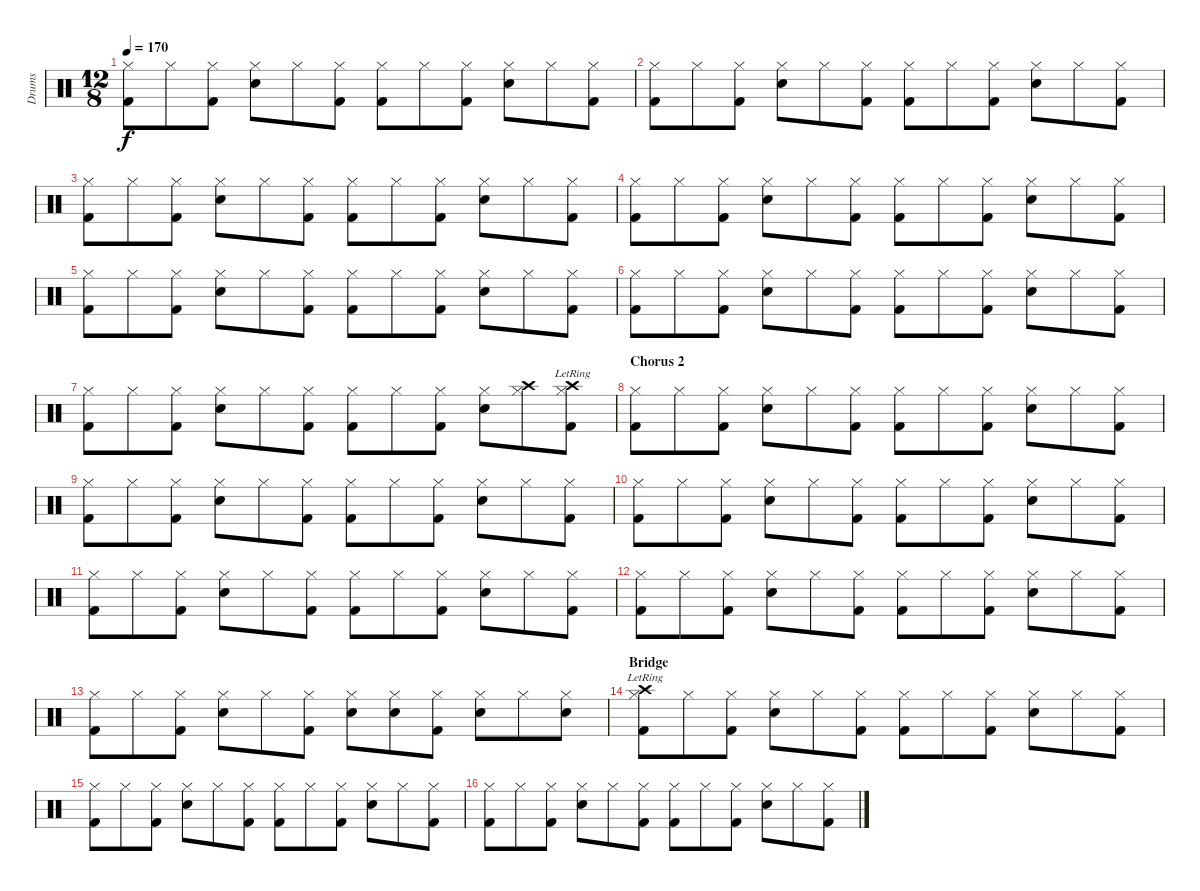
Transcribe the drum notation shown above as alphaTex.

\track ("Drums" "Drums") {instrument percussion}
\staff {score}
\articulation defaults
\ts (12 8)
\tempo 170
\clef neutral
\ks c
("Kick (hit) 2" "Hi-Hat (closed)").8{dy f} "Hi-Hat (closed)".8 ("Kick (hit) 2" "Hi-Hat (closed)").8 ("Snare (hit) 2" "Hi-Hat (closed)").8 "Hi-Hat (closed)".8 ("Kick (hit) 2" "Hi-Hat (closed)").8 ("Kick (hit) 2" "Hi-Hat (closed)").8 "Hi-Hat (closed)".8 ("Kick (hit) 2" "Hi-Hat (closed)").8 ("Snare (hit) 2" "Hi-Hat (closed)").8 "Hi-Hat (closed)".8 ("Kick (hit) 2" "Hi-Hat (closed)").8 |
("Kick (hit) 2" "Hi-Hat (closed)").8 "Hi-Hat (closed)".8 ("Kick (hit) 2" "Hi-Hat (closed)").8 ("Snare (hit) 2" "Hi-Hat (closed)").8 "Hi-Hat (closed)".8 ("Kick (hit) 2" "Hi-Hat (closed)").8 ("Kick (hit) 2" "Hi-Hat (closed)").8 "Hi-Hat (closed)".8 ("Kick (hit) 2" "Hi-Hat (closed)").8 ("Snare (hit) 2" "Hi-Hat (closed)").8 "Hi-Hat (closed)".8 ("Kick (hit) 2" "Hi-Hat (closed)").8 |
("Kick (hit) 2" "Hi-Hat (closed)").8 "Hi-Hat (closed)".8 ("Kick (hit) 2" "Hi-Hat (closed)").8 ("Snare (hit) 2" "Hi-Hat (closed)").8 "Hi-Hat (closed)".8 ("Kick (hit) 2" "Hi-Hat (closed)").8 ("Kick (hit) 2" "Hi-Hat (closed)").8 "Hi-Hat (closed)".8 ("Kick (hit) 2" "Hi-Hat (closed)").8 ("Snare (hit) 2" "Hi-Hat (closed)").8 "Hi-Hat (closed)".8 ("Kick (hit) 2" "Hi-Hat (closed)").8 |
("Kick (hit) 2" "Hi-Hat (closed)").8 "Hi-Hat (closed)".8 ("Kick (hit) 2" "Hi-Hat (closed)").8 ("Snare (hit) 2" "Hi-Hat (closed)").8 "Hi-Hat (closed)".8 ("Kick (hit) 2" "Hi-Hat (closed)").8 ("Kick (hit) 2" "Hi-Hat (closed)").8 "Hi-Hat (closed)".8 ("Kick (hit) 2" "Hi-Hat (closed)").8 ("Snare (hit) 2" "Hi-Hat (closed)").8 "Hi-Hat (closed)".8 ("Kick (hit) 2" "Hi-Hat (closed)").8 |
("Kick (hit) 2" "Hi-Hat (closed)").8 "Hi-Hat (closed)".8 ("Kick (hit) 2" "Hi-Hat (closed)").8 ("Snare (hit) 2" "Hi-Hat (closed)").8 "Hi-Hat (closed)".8 ("Kick (hit) 2" "Hi-Hat (closed)").8 ("Kick (hit) 2" "Hi-Hat (closed)").8 "Hi-Hat (closed)".8 ("Kick (hit) 2" "Hi-Hat (closed)").8 ("Snare (hit) 2" "Hi-Hat (closed)").8 "Hi-Hat (closed)".8 ("Kick (hit) 2" "Hi-Hat (closed)").8 |
("Kick (hit) 2" "Hi-Hat (closed)").8 "Hi-Hat (closed)".8 ("Kick (hit) 2" "Hi-Hat (closed)").8 ("Snare (hit) 2" "Hi-Hat (closed)").8 "Hi-Hat (closed)".8 ("Kick (hit) 2" "Hi-Hat (closed)").8 ("Kick (hit) 2" "Hi-Hat (closed)").8 "Hi-Hat (closed)".8 ("Kick (hit) 2" "Hi-Hat (closed)").8 ("Snare (hit) 2" "Hi-Hat (closed)").8 "Hi-Hat (closed)".8 ("Kick (hit) 2" "Hi-Hat (closed)").8 |
("Kick (hit) 2" "Hi-Hat (closed)").8 "Hi-Hat (closed)".8 ("Kick (hit) 2" "Hi-Hat (closed)").8 ("Snare (hit) 2" "Hi-Hat (closed)").8 "Hi-Hat (closed)".8 ("Kick (hit) 2" "Hi-Hat (closed)").8 ("Kick (hit) 2" "Hi-Hat (closed)").8 "Hi-Hat (closed)".8 ("Kick (hit) 2" "Hi-Hat (closed)").8 ("Snare (hit) 2" "Hi-Hat (closed)").8 ("Crash high (hit)" "Hi-Hat (closed)").8 ("Kick (hit) 2" "Crash high (hit)"{lr} "Hi-Hat (closed)").8 |
\section ("" "Chorus 2")
("Kick (hit) 2" "Hi-Hat (closed)").8 "Hi-Hat (closed)".8 ("Kick (hit) 2" "Hi-Hat (closed)").8 ("Snare (hit) 2" "Hi-Hat (closed)").8 "Hi-Hat (closed)".8 ("Kick (hit) 2" "Hi-Hat (closed)").8 ("Kick (hit) 2" "Hi-Hat (closed)").8 "Hi-Hat (closed)".8 ("Kick (hit) 2" "Hi-Hat (closed)").8 ("Snare (hit) 2" "Hi-Hat (closed)").8 "Hi-Hat (closed)".8 ("Kick (hit) 2" "Hi-Hat (closed)").8 |
("Kick (hit) 2" "Hi-Hat (closed)").8 "Hi-Hat (closed)".8 ("Kick (hit) 2" "Hi-Hat (closed)").8 ("Snare (hit) 2" "Hi-Hat (closed)").8 "Hi-Hat (closed)".8 ("Kick (hit) 2" "Hi-Hat (closed)").8 ("Kick (hit) 2" "Hi-Hat (closed)").8 "Hi-Hat (closed)".8 ("Kick (hit) 2" "Hi-Hat (closed)").8 ("Snare (hit) 2" "Hi-Hat (closed)").8 "Hi-Hat (closed)".8 ("Kick (hit) 2" "Hi-Hat (closed)").8 |
("Kick (hit) 2" "Hi-Hat (closed)").8 "Hi-Hat (closed)".8 ("Kick (hit) 2" "Hi-Hat (closed)").8 ("Snare (hit) 2" "Hi-Hat (closed)").8 "Hi-Hat (closed)".8 ("Kick (hit) 2" "Hi-Hat (closed)").8 ("Kick (hit) 2" "Hi-Hat (closed)").8 "Hi-Hat (closed)".8 ("Kick (hit) 2" "Hi-Hat (closed)").8 ("Snare (hit) 2" "Hi-Hat (closed)").8 "Hi-Hat (closed)".8 ("Kick (hit) 2" "Hi-Hat (closed)").8 |
("Kick (hit) 2" "Hi-Hat (closed)").8 "Hi-Hat (closed)".8 ("Kick (hit) 2" "Hi-Hat (closed)").8 ("Snare (hit) 2" "Hi-Hat (closed)").8 "Hi-Hat (closed)".8 ("Kick (hit) 2" "Hi-Hat (closed)").8 ("Kick (hit) 2" "Hi-Hat (closed)").8 "Hi-Hat (closed)".8 ("Kick (hit) 2" "Hi-Hat (closed)").8 ("Snare (hit) 2" "Hi-Hat (closed)").8 "Hi-Hat (closed)".8 ("Kick (hit) 2" "Hi-Hat (closed)").8 |
("Kick (hit) 2" "Hi-Hat (closed)").8 "Hi-Hat (closed)".8 ("Kick (hit) 2" "Hi-Hat (closed)").8 ("Snare (hit) 2" "Hi-Hat (closed)").8 "Hi-Hat (closed)".8 ("Kick (hit) 2" "Hi-Hat (closed)").8 ("Kick (hit) 2" "Hi-Hat (closed)").8 "Hi-Hat (closed)".8 ("Kick (hit) 2" "Hi-Hat (closed)").8 ("Snare (hit) 2" "Hi-Hat (closed)").8 "Hi-Hat (closed)".8 ("Kick (hit) 2" "Hi-Hat (closed)").8 |
("Kick (hit) 2" "Hi-Hat (closed)").8 "Hi-Hat (closed)".8 ("Kick (hit) 2" "Hi-Hat (closed)").8 ("Snare (hit) 2" "Hi-Hat (closed)").8 "Hi-Hat (closed)".8 ("Kick (hit) 2" "Hi-Hat (closed)").8 ("Snare (hit) 2" "Hi-Hat (closed)").8 ("Snare (hit) 2" "Hi-Hat (closed)").8 ("Kick (hit) 2" "Hi-Hat (closed)").8 ("Snare (hit) 2" "Hi-Hat (closed)").8 "Hi-Hat (closed)".8 ("Snare (hit) 2" "Hi-Hat (closed)").8 |
\section ("" "Bridge")
("Kick (hit) 2" "Crash high (hit)"{lr} "Hi-Hat (closed)").8 "Hi-Hat (closed)".8 ("Kick (hit) 2" "Hi-Hat (closed)").8 ("Snare (hit) 2" "Hi-Hat (closed)").8 "Hi-Hat (closed)".8 ("Kick (hit) 2" "Hi-Hat (closed)").8 ("Kick (hit) 2" "Hi-Hat (closed)").8 "Hi-Hat (closed)".8 ("Kick (hit) 2" "Hi-Hat (closed)").8 ("Snare (hit) 2" "Hi-Hat (closed)").8 "Hi-Hat (closed)".8 ("Kick (hit) 2" "Hi-Hat (closed)").8 |
("Kick (hit) 2" "Hi-Hat (closed)").8 "Hi-Hat (closed)".8 ("Kick (hit) 2" "Hi-Hat (closed)").8 ("Snare (hit) 2" "Hi-Hat (closed)").8 "Hi-Hat (closed)".8 ("Kick (hit) 2" "Hi-Hat (closed)").8 ("Kick (hit) 2" "Hi-Hat (closed)").8 "Hi-Hat (closed)".8 ("Kick (hit) 2" "Hi-Hat (closed)").8 ("Snare (hit) 2" "Hi-Hat (closed)").8 "Hi-Hat (closed)".8 ("Kick (hit) 2" "Hi-Hat (closed)").8 |
("Kick (hit) 2" "Hi-Hat (closed)").8 "Hi-Hat (closed)".8 ("Kick (hit) 2" "Hi-Hat (closed)").8 ("Snare (hit) 2" "Hi-Hat (closed)").8 "Hi-Hat (closed)".8 ("Kick (hit) 2" "Hi-Hat (closed)").8 ("Kick (hit) 2" "Hi-Hat (closed)").8 "Hi-Hat (closed)".8 ("Kick (hit) 2" "Hi-Hat (closed)").8 ("Snare (hit) 2" "Hi-Hat (closed)").8 "Hi-Hat (closed)".8 ("Kick (hit) 2" "Hi-Hat (closed)").8
